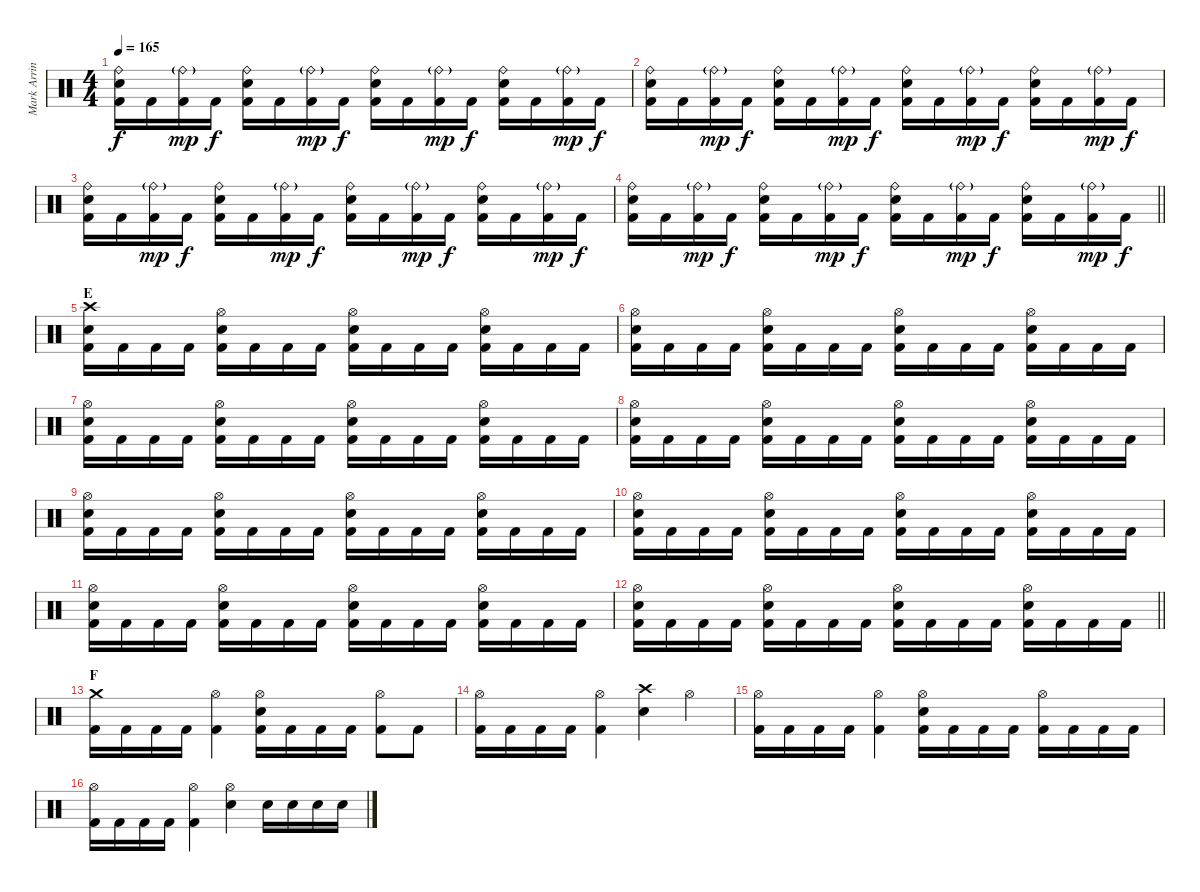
\track ("Mark Arrington Drums" "Mark Arrin") {instrument percussion}
\staff {score}
\articulation defaults
\ts (4 4)
\tempo 165
\clef neutral
\ks c
("Ride (bell)" "Electric Snare (hit)" "Kick (hit) 2").16{dy f} "Kick (hit) 2".16 ("Ride (bell)"{g} "Kick (hit) 2").16{dy mp} "Kick (hit) 2".16{dy f} ("Ride (bell)" "Electric Snare (hit)" "Kick (hit) 2").16 "Kick (hit) 2".16 ("Ride (bell)"{g} "Kick (hit) 2").16{dy mp} "Kick (hit) 2".16{dy f} ("Ride (bell)" "Electric Snare (hit)" "Kick (hit) 2").16 "Kick (hit) 2".16 ("Ride (bell)"{g} "Kick (hit) 2").16{dy mp} "Kick (hit) 2".16{dy f} ("Ride (bell)" "Electric Snare (hit)" "Kick (hit) 2").16 "Kick (hit) 2".16 ("Ride (bell)"{g} "Kick (hit) 2").16{dy mp} "Kick (hit) 2".16{dy f} |
("Ride (bell)" "Electric Snare (hit)" "Kick (hit) 2").16 "Kick (hit) 2".16 ("Ride (bell)"{g} "Kick (hit) 2").16{dy mp} "Kick (hit) 2".16{dy f} ("Ride (bell)" "Electric Snare (hit)" "Kick (hit) 2").16 "Kick (hit) 2".16 ("Ride (bell)"{g} "Kick (hit) 2").16{dy mp} "Kick (hit) 2".16{dy f} ("Ride (bell)" "Electric Snare (hit)" "Kick (hit) 2").16 "Kick (hit) 2".16 ("Ride (bell)"{g} "Kick (hit) 2").16{dy mp} "Kick (hit) 2".16{dy f} ("Ride (bell)" "Electric Snare (hit)" "Kick (hit) 2").16 "Kick (hit) 2".16 ("Ride (bell)"{g} "Kick (hit) 2").16{dy mp} "Kick (hit) 2".16{dy f} |
("Ride (bell)" "Electric Snare (hit)" "Kick (hit) 2").16 "Kick (hit) 2".16 ("Ride (bell)"{g} "Kick (hit) 2").16{dy mp} "Kick (hit) 2".16{dy f} ("Ride (bell)" "Electric Snare (hit)" "Kick (hit) 2").16 "Kick (hit) 2".16 ("Ride (bell)"{g} "Kick (hit) 2").16{dy mp} "Kick (hit) 2".16{dy f} ("Ride (bell)" "Electric Snare (hit)" "Kick (hit) 2").16 "Kick (hit) 2".16 ("Ride (bell)"{g} "Kick (hit) 2").16{dy mp} "Kick (hit) 2".16{dy f} ("Ride (bell)" "Electric Snare (hit)" "Kick (hit) 2").16 "Kick (hit) 2".16 ("Ride (bell)"{g} "Kick (hit) 2").16{dy mp} "Kick (hit) 2".16{dy f} |
\barLineRight lightlight
("Ride (bell)" "Electric Snare (hit)" "Kick (hit) 2").16 "Kick (hit) 2".16 ("Ride (bell)"{g} "Kick (hit) 2").16{dy mp} "Kick (hit) 2".16{dy f} ("Ride (bell)" "Electric Snare (hit)" "Kick (hit) 2").16 "Kick (hit) 2".16 ("Ride (bell)"{g} "Kick (hit) 2").16{dy mp} "Kick (hit) 2".16{dy f} ("Ride (bell)" "Electric Snare (hit)" "Kick (hit) 2").16 "Kick (hit) 2".16 ("Ride (bell)"{g} "Kick (hit) 2").16{dy mp} "Kick (hit) 2".16{dy f} ("Ride (bell)" "Electric Snare (hit)" "Kick (hit) 2").16 "Kick (hit) 2".16 ("Ride (bell)"{g} "Kick (hit) 2").16{dy mp} "Kick (hit) 2".16{dy f} |
\section ("" "E")
("Crash high (hit)" "Electric Snare (hit)" "Kick (hit) 2").16 "Kick (hit) 2".16 "Kick (hit) 2".16 "Kick (hit) 2".16 ("Hi-Hat (open)" "Electric Snare (hit)" "Kick (hit) 2").16 "Kick (hit) 2".16 "Kick (hit) 2".16 "Kick (hit) 2".16 ("Hi-Hat (open)" "Electric Snare (hit)" "Kick (hit) 2").16 "Kick (hit) 2".16 "Kick (hit) 2".16 "Kick (hit) 2".16 ("Hi-Hat (open)" "Electric Snare (hit)" "Kick (hit) 2").16 "Kick (hit) 2".16 "Kick (hit) 2".16 "Kick (hit) 2".16 |
("Hi-Hat (open)" "Electric Snare (hit)" "Kick (hit) 2").16 "Kick (hit) 2".16 "Kick (hit) 2".16 "Kick (hit) 2".16 ("Hi-Hat (open)" "Electric Snare (hit)" "Kick (hit) 2").16 "Kick (hit) 2".16 "Kick (hit) 2".16 "Kick (hit) 2".16 ("Hi-Hat (open)" "Electric Snare (hit)" "Kick (hit) 2").16 "Kick (hit) 2".16 "Kick (hit) 2".16 "Kick (hit) 2".16 ("Hi-Hat (open)" "Electric Snare (hit)" "Kick (hit) 2").16 "Kick (hit) 2".16 "Kick (hit) 2".16 "Kick (hit) 2".16 |
("Hi-Hat (open)" "Electric Snare (hit)" "Kick (hit) 2").16 "Kick (hit) 2".16 "Kick (hit) 2".16 "Kick (hit) 2".16 ("Hi-Hat (open)" "Electric Snare (hit)" "Kick (hit) 2").16 "Kick (hit) 2".16 "Kick (hit) 2".16 "Kick (hit) 2".16 ("Hi-Hat (open)" "Electric Snare (hit)" "Kick (hit) 2").16 "Kick (hit) 2".16 "Kick (hit) 2".16 "Kick (hit) 2".16 ("Hi-Hat (open)" "Electric Snare (hit)" "Kick (hit) 2").16 "Kick (hit) 2".16 "Kick (hit) 2".16 "Kick (hit) 2".16 |
("Hi-Hat (open)" "Electric Snare (hit)" "Kick (hit) 2").16 "Kick (hit) 2".16 "Kick (hit) 2".16 "Kick (hit) 2".16 ("Hi-Hat (open)" "Electric Snare (hit)" "Kick (hit) 2").16 "Kick (hit) 2".16 "Kick (hit) 2".16 "Kick (hit) 2".16 ("Hi-Hat (open)" "Electric Snare (hit)" "Kick (hit) 2").16 "Kick (hit) 2".16 "Kick (hit) 2".16 "Kick (hit) 2".16 ("Hi-Hat (open)" "Electric Snare (hit)" "Kick (hit) 2").16 "Kick (hit) 2".16 "Kick (hit) 2".16 "Kick (hit) 2".16 |
("Hi-Hat (open)" "Electric Snare (hit)" "Kick (hit) 2").16 "Kick (hit) 2".16 "Kick (hit) 2".16 "Kick (hit) 2".16 ("Hi-Hat (open)" "Electric Snare (hit)" "Kick (hit) 2").16 "Kick (hit) 2".16 "Kick (hit) 2".16 "Kick (hit) 2".16 ("Hi-Hat (open)" "Electric Snare (hit)" "Kick (hit) 2").16 "Kick (hit) 2".16 "Kick (hit) 2".16 "Kick (hit) 2".16 ("Hi-Hat (open)" "Electric Snare (hit)" "Kick (hit) 2").16 "Kick (hit) 2".16 "Kick (hit) 2".16 "Kick (hit) 2".16 |
("Hi-Hat (open)" "Electric Snare (hit)" "Kick (hit) 2").16 "Kick (hit) 2".16 "Kick (hit) 2".16 "Kick (hit) 2".16 ("Hi-Hat (open)" "Electric Snare (hit)" "Kick (hit) 2").16 "Kick (hit) 2".16 "Kick (hit) 2".16 "Kick (hit) 2".16 ("Hi-Hat (open)" "Electric Snare (hit)" "Kick (hit) 2").16 "Kick (hit) 2".16 "Kick (hit) 2".16 "Kick (hit) 2".16 ("Hi-Hat (open)" "Electric Snare (hit)" "Kick (hit) 2").16 "Kick (hit) 2".16 "Kick (hit) 2".16 "Kick (hit) 2".16 |
("Hi-Hat (open)" "Electric Snare (hit)" "Kick (hit) 2").16 "Kick (hit) 2".16 "Kick (hit) 2".16 "Kick (hit) 2".16 ("Hi-Hat (open)" "Electric Snare (hit)" "Kick (hit) 2").16 "Kick (hit) 2".16 "Kick (hit) 2".16 "Kick (hit) 2".16 ("Hi-Hat (open)" "Electric Snare (hit)" "Kick (hit) 2").16 "Kick (hit) 2".16 "Kick (hit) 2".16 "Kick (hit) 2".16 ("Hi-Hat (open)" "Electric Snare (hit)" "Kick (hit) 2").16 "Kick (hit) 2".16 "Kick (hit) 2".16 "Kick (hit) 2".16 |
\barLineRight lightlight
("Hi-Hat (open)" "Electric Snare (hit)" "Kick (hit) 2").16 "Kick (hit) 2".16 "Kick (hit) 2".16 "Kick (hit) 2".16 ("Hi-Hat (open)" "Electric Snare (hit)" "Kick (hit) 2").16 "Kick (hit) 2".16 "Kick (hit) 2".16 "Kick (hit) 2".16 ("Hi-Hat (open)" "Electric Snare (hit)" "Kick (hit) 2").16 "Kick (hit) 2".16 "Kick (hit) 2".16 "Kick (hit) 2".16 ("Hi-Hat (open)" "Electric Snare (hit)" "Kick (hit) 2").16 "Kick (hit) 2".16 "Kick (hit) 2".16 "Kick (hit) 2".16 |
\section ("" "F")
("Crash medium (hit)" "Kick (hit) 2").16 "Kick (hit) 2".16 "Kick (hit) 2".16 "Kick (hit) 2".16 ("Hi-Hat (open)" "Kick (hit) 2").4 ("Hi-Hat (open)" "Electric Snare (hit)" "Kick (hit) 2").16 "Kick (hit) 2".16 "Kick (hit) 2".16 "Kick (hit) 2".16 ("Hi-Hat (open)" "Kick (hit) 2").8 "Kick (hit) 2".8 |
("Hi-Hat (open)" "Kick (hit) 2").16 "Kick (hit) 2".16 "Kick (hit) 2".16 "Kick (hit) 2".16 ("Hi-Hat (open)" "Kick (hit) 2").4 ("Crash high (hit)" "Electric Snare (hit)").4 "Hi-Hat (open)".4 |
("Hi-Hat (open)" "Kick (hit) 2").16 "Kick (hit) 2".16 "Kick (hit) 2".16 "Kick (hit) 2".16 ("Hi-Hat (open)" "Kick (hit) 2").4 ("Hi-Hat (open)" "Electric Snare (hit)" "Kick (hit) 2").16 "Kick (hit) 2".16 "Kick (hit) 2".16 "Kick (hit) 2".16 ("Hi-Hat (open)" "Kick (hit) 2").16 "Kick (hit) 2".16 "Kick (hit) 2".16 "Kick (hit) 2".16 |
("Hi-Hat (open)" "Kick (hit) 2").16 "Kick (hit) 2".16 "Kick (hit) 2".16 "Kick (hit) 2".16 ("Hi-Hat (open)" "Kick (hit) 2").4 ("Hi-Hat (open)" "Electric Snare (hit)").4 "Electric Snare (hit)".16 "Electric Snare (hit)".16 "Electric Snare (hit)".16 "Electric Snare (hit)".16
